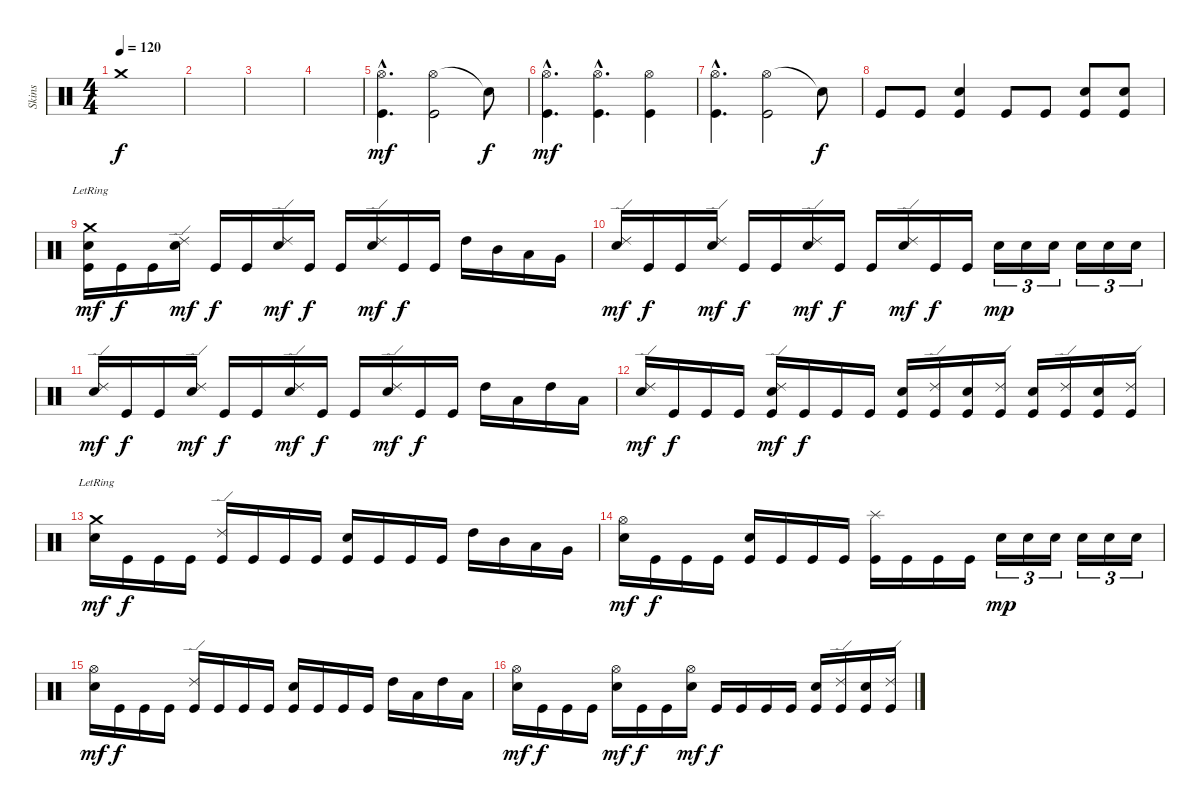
\track ("Skins" "Skins") {instrument percussion}
\staff {score}
\articulation defaults
\ts (4 4)
\tempo 120
\clef neutral
\ks c "Crash medium (hit)".1{dy f}
|
|
|
|
("Hi-Hat (open)"{hac} "Kick (hit)"{hac}).4{d dy mf} ("Hi-Hat (open)" "Kick (hit)").2 "Snare (hit)"{t}.8{dy f} |
("Hi-Hat (open)"{hac} "Kick (hit)"{hac}).4{d dy mf} ("Hi-Hat (open)"{hac} "Kick (hit)"{hac}).4{d} ("Hi-Hat (open)" "Kick (hit)").4 |
("Hi-Hat (open)"{hac} "Kick (hit)"{hac}).4{d} ("Hi-Hat (open)" "Kick (hit)").2 "Snare (hit)"{t}.8{dy f} |
"Kick (hit)".8 "Kick (hit)".8 ("Electric Snare (hit)" "Kick (hit)").4 "Kick (hit)".8 "Kick (hit)".8 ("Snare (hit) 2" "Kick (hit)").8 ("Snare (hit) 2" "Kick (hit)").8 |
("Crash medium (hit)"{lr} "Snare (hit) 2" "Kick (hit)").16{dy mf} "Kick (hit)".16{dy f} "Kick (hit)".16 ("Ride (edge) 2" "Snare (hit) 2").16{dy mf} "Kick (hit)".16{dy f} "Kick (hit)".16 ("Ride (edge) 2" "Snare (hit) 2").16{dy mf} "Kick (hit)".16{dy f} "Kick (hit)".16 ("Ride (edge) 2" "Snare (hit) 2").16{dy mf} "Kick (hit)".16{dy f} "Kick (hit)".16 "High Tom (hit)".16 "Mid Tom (hit)".16 "Low Tom (hit)".16 "Very Low Tom (hit)".16 |
("Ride (edge) 2" "Snare (hit) 2").16{dy mf} "Kick (hit)".16{dy f} "Kick (hit)".16 ("Ride (edge) 2" "Snare (hit) 2").16{dy mf} "Kick (hit)".16{dy f} "Kick (hit)".16 ("Ride (edge) 2" "Snare (hit) 2").16{dy mf} "Kick (hit)".16{dy f} "Kick (hit)".16 ("Ride (edge) 2" "Snare (hit) 2").16{dy mf} "Kick (hit)".16{dy f} "Kick (hit)".16 "Snare (hit) 2".16{tu (3 2) dy mp} "Snare (hit) 2".16{tu (3 2)} "Snare (hit) 2".16{tu (3 2)} "Snare (hit) 2".16{tu (3 2)} "Snare (hit) 2".16{tu (3 2)} "Snare (hit) 2".16{tu (3 2)} |
("Ride (edge) 2" "Snare (hit) 2").16{dy mf} "Kick (hit)".16{dy f} "Kick (hit)".16 ("Ride (edge) 2" "Snare (hit) 2").16{dy mf} "Kick (hit)".16{dy f} "Kick (hit)".16 ("Ride (edge) 2" "Snare (hit) 2").16{dy mf} "Kick (hit)".16{dy f} "Kick (hit)".16 ("Ride (edge) 2" "Snare (hit) 2").16{dy mf} "Kick (hit)".16{dy f} "Kick (hit)".16 "High Tom (hit)".16 "Low Tom (hit)".16 "High Tom (hit)".16 "Low Tom (hit)".16 |
("Ride (edge) 2" "Snare (hit) 2").16{dy mf} "Kick (hit)".16{dy f} "Kick (hit)".16 "Kick (hit)".16 ("Ride (edge) 2" "Snare (hit) 2" "Kick (hit)").16{dy mf} "Kick (hit)".16{dy f} "Kick (hit)".16 "Kick (hit)".16 ("Snare (hit) 2" "Kick (hit)").16 ("Ride (edge) 2" "Kick (hit)").16 ("Snare (hit) 2" "Kick (hit)").16 ("Ride (edge) 2" "Kick (hit)").16 ("Snare (hit) 2" "Kick (hit)").16 ("Ride (edge) 2" "Kick (hit)").16 ("Snare (hit) 2" "Kick (hit)").16 ("Ride (edge) 2" "Kick (hit)").16 |
("Crash medium (hit)"{lr} "Electric Snare (hit)").16{dy mf} "Kick (hit)".16{dy f} "Kick (hit)".16 "Kick (hit)".16 ("Ride (edge) 2" "Kick (hit)").16 "Kick (hit)".16 "Kick (hit)".16 "Kick (hit)".16 ("Electric Snare (hit)" "Kick (hit)").16 "Kick (hit)".16 "Kick (hit)".16 "Kick (hit)".16 "High Tom (hit)".16 "Mid Tom (hit)".16 "Low Tom (hit)".16 "Very Low Tom (hit)".16 |
("Hi-Hat (open)" "Electric Snare (hit)").16{dy mf} "Kick (hit)".16{dy f} "Kick (hit)".16 "Kick (hit)".16 ("Electric Snare (hit)" "Kick (hit)").16 "Kick (hit)".16 "Kick (hit)".16 "Kick (hit)".16 ("Splash (hit)" "Kick (hit)").16 "Kick (hit)".16 "Kick (hit)".16 "Kick (hit)".16 "Snare (hit) 2".16{tu (3 2) dy mp} "Snare (hit) 2".16{tu (3 2)} "Snare (hit) 2".16{tu (3 2)} "Snare (hit) 2".16{tu (3 2)} "Snare (hit) 2".16{tu (3 2)} "Snare (hit) 2".16{tu (3 2)} |
("Hi-Hat (open)" "Electric Snare (hit)").16{dy mf} "Kick (hit)".16{dy f} "Kick (hit)".16 "Kick (hit)".16 ("Ride (edge) 2" "Kick (hit)").16 "Kick (hit)".16 "Kick (hit)".16 "Kick (hit)".16 ("Snare (hit) 2" "Kick (hit)").16 "Kick (hit)".16 "Kick (hit)".16 "Kick (hit)".16 "High Tom (hit)".16 "Low Tom (hit)".16 "High Tom (hit)".16 "Low Tom (hit)".16 |
("Hi-Hat (open)" "Electric Snare (hit)").16{dy mf} "Kick (hit)".16{dy f} "Kick (hit)".16 "Kick (hit)".16 ("Hi-Hat (open)" "Electric Snare (hit)").16{dy mf} "Kick (hit)".16{dy f} "Kick (hit)".16 ("Hi-Hat (open)" "Electric Snare (hit)").16{dy mf} "Kick (hit)".16{dy f} "Kick (hit)".16 "Kick (hit)".16 "Kick (hit)".16 ("Snare (hit) 2" "Kick (hit)").16 ("Ride (edge) 2" "Kick (hit)").16 ("Snare (hit) 2" "Kick (hit)").16 ("Ride (edge) 2" "Kick (hit)").16
